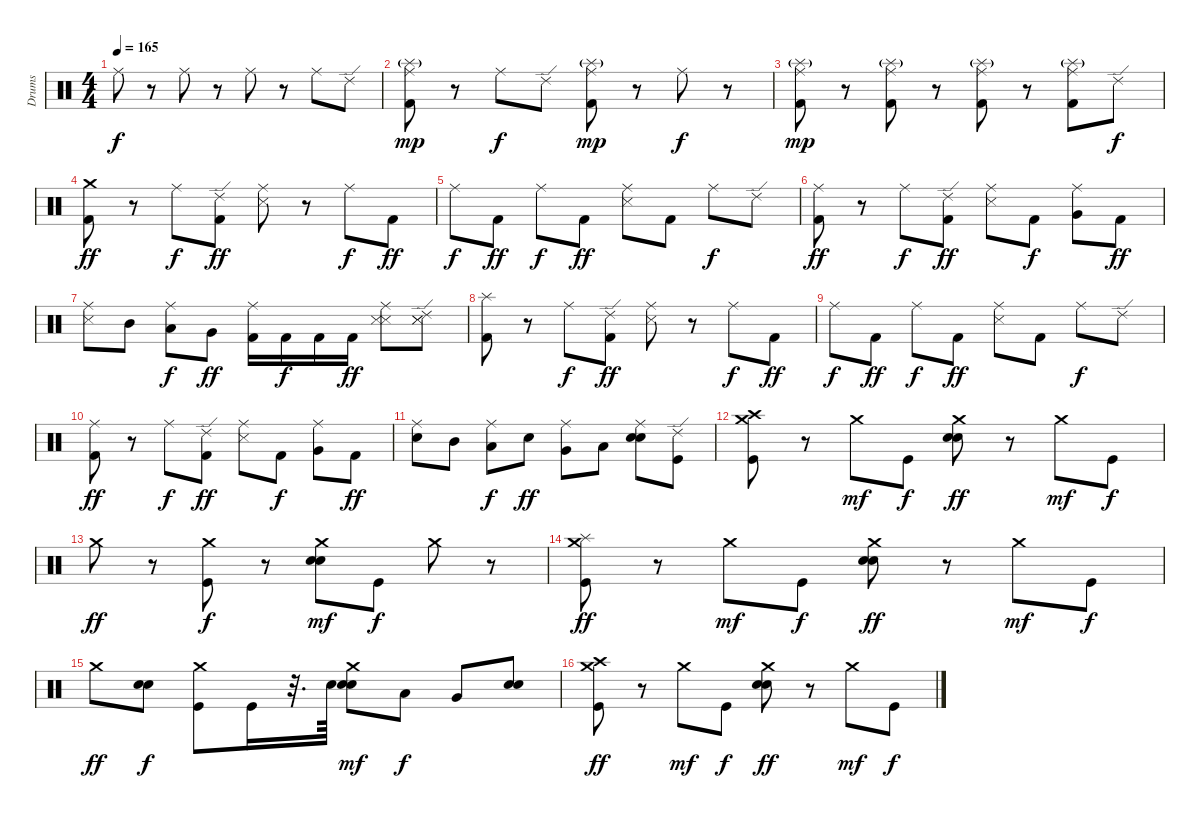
\track ("Drums" "Drums") {instrument percussion}
\staff {score}
\articulation defaults
\ts (4 4)
\tempo 165
\clef neutral
\ks c "Ride (middle)".8{dy f}
r.8 "Ride (middle)".8 r.8 "Ride (middle)".8 r.8 "Ride (middle)".8 "Ride (edge) 2".8 |
("Kick (hit) 2" "Ride (middle)" "Splash (hit)"{g}).8{dy mp} r.8 "Ride (middle)".8{dy f} "Ride (edge) 2".8 ("Kick (hit) 2" "Ride (middle)" "Splash (hit)"{g}).8{dy mp} r.8 "Ride (middle)".8{dy f} r.8 |
("Kick (hit) 2" "Splash (hit)"{g} "Ride (middle)").8{dy mp} r.8 ("Kick (hit) 2" "Splash (hit)"{g} "Ride (middle)").8 r.8 ("Kick (hit) 2" "Splash (hit)"{g} "Ride (middle)").8 r.8 ("Kick (hit) 2" "Splash (hit)"{g} "Ride (middle)").8 "Ride (edge) 2".8{dy f} |
("Kick (hit) 2" "Crash medium (hit)").8{dy ff} r.8 "Ride (middle)".8{dy f} ("Kick (hit) 2" "Ride (edge) 2").8{dy ff} ("Snare (side stick) 3" "Ride (middle)").8 r.8 "Ride (middle)".8{dy f} "Kick (hit) 2".8{dy ff} |
"Ride (middle)".8{dy f} "Kick (hit) 2".8{dy ff} "Ride (middle)".8{dy f} "Kick (hit) 2".8{dy ff} ("Snare (side stick) 3" "Ride (middle)").8 "Kick (hit) 2".8 "Ride (middle)".8{dy f} "Ride (edge) 2".8 |
("Kick (hit) 2" "Ride (middle)").8{dy ff} r.8 "Ride (middle)".8{dy f} ("Kick (hit) 2" "Ride (edge) 2").8{dy ff} ("Snare (side stick) 3" "Ride (middle)").8 "Kick (hit) 2".8{dy f} ("Very Low Tom (hit)" "Ride (middle)").8 "Kick (hit) 2".8{dy ff} |
("Snare (side stick) 3" "Ride (middle)").8 "Mid Tom (hit)".8 ("Low Tom (hit)" "Ride (middle)").8{dy f} "Very Low Tom (hit)".8{dy ff} ("Kick (hit) 2" "Ride (middle)").16 "Kick (hit) 2".16{dy f} "Kick (hit) 2".16 "Kick (hit) 2".16{dy ff} ("Snare (side stick) 3" "Snare (side stick) 3" "Ride (middle)").8 ("Snare (side stick) 3" "Snare (side stick) 3" "Ride (edge) 2").8 |
("Kick (hit) 2" "Splash (hit)").8 r.8 "Ride (middle)".8{dy f} ("Kick (hit) 2" "Ride (edge) 2").8{dy ff} ("Snare (side stick) 3" "Ride (middle)").8 r.8 "Ride (middle)".8{dy f} "Kick (hit) 2".8{dy ff} |
"Ride (middle)".8{dy f} "Kick (hit) 2".8{dy ff} "Ride (middle)".8{dy f} "Kick (hit) 2".8{dy ff} ("Snare (side stick) 3" "Ride (middle)").8 "Kick (hit) 2".8 "Ride (middle)".8{dy f} "Ride (edge) 2".8 |
("Kick (hit) 2" "Ride (middle)").8{dy ff} r.8 "Ride (middle)".8{dy f} ("Kick (hit) 2" "Ride (edge) 2").8{dy ff} ("Snare (side stick) 3" "Ride (middle)").8 "Kick (hit) 2".8{dy f} ("Very Low Tom (hit)" "Ride (middle)").8 "Kick (hit) 2".8{dy ff} |
("Electric Snare (hit)" "Ride (middle)").8 "Mid Tom (hit)".8 ("Low Tom (hit)" "Ride (middle)").8{dy f} "Electric Snare (hit)".8{dy ff} ("Very Low Tom (hit)" "Ride (middle)").8 "Low Floor Tom (hit)".8 ("Electric Snare (hit)" "Electric Snare (hit)" "Ride (middle)").8 ("Kick (hit)" "Ride (edge) 2").8 |
("Kick (hit)" "Crash medium (hit)" "Crash high (hit)").8 r.8 "Crash medium (hit)".8{dy mf} "Kick (hit)".8{dy f} ("Electric Snare (hit)" "Electric Snare (hit)" "Crash medium (hit)").8{dy ff} r.8 "Crash medium (hit)".8{dy mf} "Kick (hit)".8{dy f} |
"Crash medium (hit)".8{dy ff} r.8 ("Kick (hit)" "Crash medium (hit)").8{dy f} r.8 ("Electric Snare (hit)" "Electric Snare (hit)" "Crash medium (hit)").8{dy mf} "Kick (hit)".8{dy f} "Crash medium (hit)".8 r.8 |
("Kick (hit)" "Crash medium (hit)" "Splash (hit)").8{dy ff} r.8 "Crash medium (hit)".8{dy mf} "Kick (hit)".8{dy f} ("Electric Snare (hit)" "Electric Snare (hit)" "Crash medium (hit)").8{dy ff} r.8 "Crash medium (hit)".8{dy mf} "Kick (hit)".8{dy f} |
"Crash medium (hit)".8{dy ff} ("Electric Snare (hit)" "Electric Snare (hit)").8{dy f} ("Kick (hit)" "Crash medium (hit)").8 "Kick (hit)".16 r.32{d} "Electric Snare (hit)".64 ("Electric Snare (hit)" "Electric Snare (hit)" "Crash medium (hit)").8{dy mf} "Low Tom (hit)".8{dy f} "Very Low Tom (hit)".8 ("Electric Snare (hit)" "Electric Snare (hit)").8 |
("Kick (hit)" "Crash medium (hit)" "Crash high (hit)").8{dy ff} r.8 "Crash medium (hit)".8{dy mf} "Kick (hit)".8{dy f} ("Electric Snare (hit)" "Electric Snare (hit)" "Crash medium (hit)").8{dy ff} r.8 "Crash medium (hit)".8{dy mf} "Kick (hit)".8{dy f}
